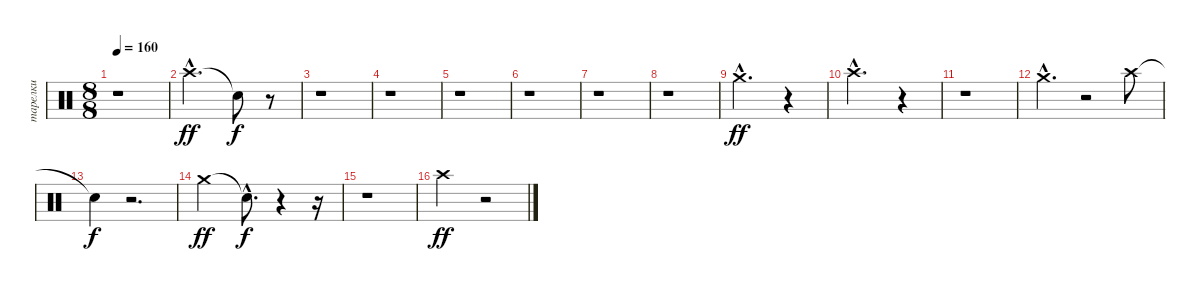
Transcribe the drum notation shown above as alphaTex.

\track ("тарелки" "тарелки") {instrument percussion}
\staff {score}
\articulation defaults
\ts (8 8)
\tempo 160
\clef neutral
\ks c
r.1{dy f} |
"Crash high (hit)"{hac}.2{d dy ff} "Snare (hit)"{t}.8{dy f} r.8 |
r.1 |
r.1 |
r.1 |
r.1 |
r.1 |
r.1 |
"Crash medium (hit)"{hac}.2{d dy ff} r.4 |
"Crash high (hit)"{hac}.2{d} r.4 |
r.1 |
"Crash medium (hit)"{hac}.4{d} r.2 "Crash high (hit)".8 |
"Snare (hit)"{t}.4{dy f} r.2{d} |
"Crash medium (hit)".2{dy ff} "Snare (hit)"{hac t}.8{d dy f} r.4 r.16 |
r.1 |
"Crash high (hit)".2{dy ff} r.2
